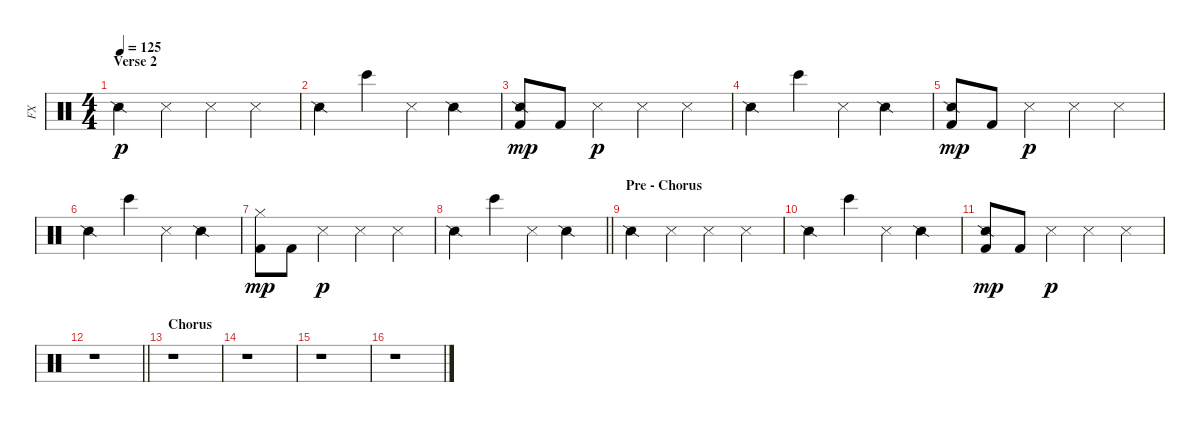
\track ("FX" "FX") {instrument percussion}
\staff {score}
\articulation defaults
\ts (4 4)
\section ("" "Verse 2")
\tempo 125
\clef neutral
\ks c "Snare (side stick) 2".4{dy p} "Metronome (hit)".4 "Metronome (hit)".4 "Metronome (hit)".4
|
"Snare (side stick) 2".4 "Bongo High (hit)".4 "Metronome (hit)".4 "Snare (side stick) 2".4 |
("Snare (side stick) 2" "Kick (hit) 2").8{dy mp} "Kick (hit) 2".8 "Metronome (hit)".4{dy p} "Metronome (hit)".4 "Metronome (hit)".4 |
"Snare (side stick) 2".4 "Bongo High (hit)".4 "Metronome (hit)".4 "Snare (side stick) 2".4 |
("Snare (side stick) 2" "Kick (hit) 2").8{dy mp} "Kick (hit) 2".8 "Metronome (hit)".4{dy p} "Metronome (hit)".4 "Metronome (hit)".4 |
"Snare (side stick) 2".4 "Bongo High (hit)".4 "Metronome (hit)".4 "Snare (side stick) 2".4 |
("Hi-Hat (closed)" "Kick (hit) 2").8{dy mp} "Kick (hit) 2".8 "Metronome (hit)".4{dy p} "Metronome (hit)".4 "Metronome (hit)".4 |
\barLineRight lightlight "Snare (side stick) 2".4 "Bongo High (hit)".4 "Metronome (hit)".4 "Snare (side stick) 2".4
|
\section ("" "Pre - Chorus")
"Snare (side stick) 2".4 "Metronome (hit)".4 "Metronome (hit)".4 "Metronome (hit)".4 |
"Snare (side stick) 2".4 "Bongo High (hit)".4 "Metronome (hit)".4 "Snare (side stick) 2".4 |
("Snare (side stick) 2" "Kick (hit) 2").8{dy mp} "Kick (hit) 2".8 "Metronome (hit)".4{dy p} "Metronome (hit)".4 "Metronome (hit)".4 |
\barLineRight lightlight
r.1 |
\section ("" "Chorus")
r.1 |
r.1 |
r.1 |
r.1
